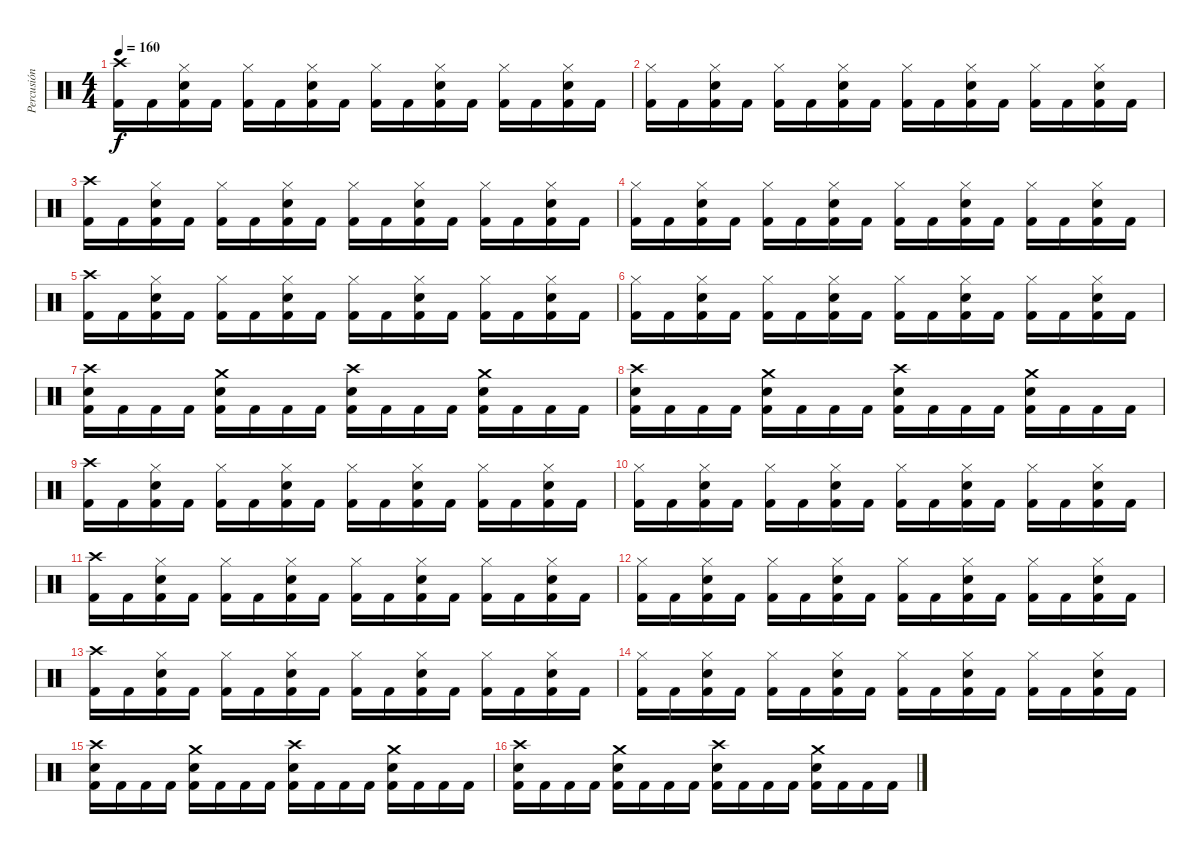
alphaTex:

\track ("Percusión" "Percusión") {instrument percussion}
\staff {score}
\articulation defaults
\ts (4 4)
\tempo 160
\clef neutral
\ks c
("Crash high (hit)" "Kick (hit) 2").16{dy f} "Kick (hit) 2".16 ("Hi-Hat (closed)" "Electric Snare (hit)" "Kick (hit) 2").16 "Kick (hit) 2".16 ("Hi-Hat (closed)" "Kick (hit) 2").16 "Kick (hit) 2".16 ("Hi-Hat (closed)" "Electric Snare (hit)" "Kick (hit) 2").16 "Kick (hit) 2".16 ("Hi-Hat (closed)" "Kick (hit) 2").16 "Kick (hit) 2".16 ("Hi-Hat (closed)" "Electric Snare (hit)" "Kick (hit) 2").16 "Kick (hit) 2".16 ("Hi-Hat (closed)" "Kick (hit) 2").16 "Kick (hit) 2".16 ("Hi-Hat (closed)" "Electric Snare (hit)" "Kick (hit) 2").16 "Kick (hit) 2".16 |
("Hi-Hat (closed)" "Kick (hit) 2").16 "Kick (hit) 2".16 ("Hi-Hat (closed)" "Electric Snare (hit)" "Kick (hit) 2").16 "Kick (hit) 2".16 ("Hi-Hat (closed)" "Kick (hit) 2").16 "Kick (hit) 2".16 ("Hi-Hat (closed)" "Electric Snare (hit)" "Kick (hit) 2").16 "Kick (hit) 2".16 ("Hi-Hat (closed)" "Kick (hit) 2").16 "Kick (hit) 2".16 ("Hi-Hat (closed)" "Electric Snare (hit)" "Kick (hit) 2").16 "Kick (hit) 2".16 ("Hi-Hat (closed)" "Kick (hit) 2").16 "Kick (hit) 2".16 ("Hi-Hat (closed)" "Electric Snare (hit)" "Kick (hit) 2").16 "Kick (hit) 2".16 |
("Crash high (hit)" "Kick (hit) 2").16 "Kick (hit) 2".16 ("Hi-Hat (closed)" "Electric Snare (hit)" "Kick (hit) 2").16 "Kick (hit) 2".16 ("Hi-Hat (closed)" "Kick (hit) 2").16 "Kick (hit) 2".16 ("Hi-Hat (closed)" "Electric Snare (hit)" "Kick (hit) 2").16 "Kick (hit) 2".16 ("Hi-Hat (closed)" "Kick (hit) 2").16 "Kick (hit) 2".16 ("Hi-Hat (closed)" "Electric Snare (hit)" "Kick (hit) 2").16 "Kick (hit) 2".16 ("Hi-Hat (closed)" "Kick (hit) 2").16 "Kick (hit) 2".16 ("Hi-Hat (closed)" "Electric Snare (hit)" "Kick (hit) 2").16 "Kick (hit) 2".16 |
("Hi-Hat (closed)" "Kick (hit) 2").16 "Kick (hit) 2".16 ("Hi-Hat (closed)" "Electric Snare (hit)" "Kick (hit) 2").16 "Kick (hit) 2".16 ("Hi-Hat (closed)" "Kick (hit) 2").16 "Kick (hit) 2".16 ("Hi-Hat (closed)" "Electric Snare (hit)" "Kick (hit) 2").16 "Kick (hit) 2".16 ("Hi-Hat (closed)" "Kick (hit) 2").16 "Kick (hit) 2".16 ("Hi-Hat (closed)" "Electric Snare (hit)" "Kick (hit) 2").16 "Kick (hit) 2".16 ("Hi-Hat (closed)" "Kick (hit) 2").16 "Kick (hit) 2".16 ("Hi-Hat (closed)" "Electric Snare (hit)" "Kick (hit) 2").16 "Kick (hit) 2".16 |
("Crash high (hit)" "Kick (hit) 2").16 "Kick (hit) 2".16 ("Hi-Hat (closed)" "Electric Snare (hit)" "Kick (hit) 2").16 "Kick (hit) 2".16 ("Hi-Hat (closed)" "Kick (hit) 2").16 "Kick (hit) 2".16 ("Hi-Hat (closed)" "Electric Snare (hit)" "Kick (hit) 2").16 "Kick (hit) 2".16 ("Hi-Hat (closed)" "Kick (hit) 2").16 "Kick (hit) 2".16 ("Hi-Hat (closed)" "Electric Snare (hit)" "Kick (hit) 2").16 "Kick (hit) 2".16 ("Hi-Hat (closed)" "Kick (hit) 2").16 "Kick (hit) 2".16 ("Hi-Hat (closed)" "Electric Snare (hit)" "Kick (hit) 2").16 "Kick (hit) 2".16 |
("Hi-Hat (closed)" "Kick (hit) 2").16 "Kick (hit) 2".16 ("Hi-Hat (closed)" "Electric Snare (hit)" "Kick (hit) 2").16 "Kick (hit) 2".16 ("Hi-Hat (closed)" "Kick (hit) 2").16 "Kick (hit) 2".16 ("Hi-Hat (closed)" "Electric Snare (hit)" "Kick (hit) 2").16 "Kick (hit) 2".16 ("Hi-Hat (closed)" "Kick (hit) 2").16 "Kick (hit) 2".16 ("Hi-Hat (closed)" "Electric Snare (hit)" "Kick (hit) 2").16 "Kick (hit) 2".16 ("Hi-Hat (closed)" "Kick (hit) 2").16 "Kick (hit) 2".16 ("Hi-Hat (closed)" "Electric Snare (hit)" "Kick (hit) 2").16 "Kick (hit) 2".16 |
("Crash high (hit)" "Electric Snare (hit)" "Kick (hit) 2").16 "Kick (hit) 2".16 "Kick (hit) 2".16 "Kick (hit) 2".16 ("Crash medium (hit)" "Electric Snare (hit)" "Kick (hit) 2").16 "Kick (hit) 2".16 "Kick (hit) 2".16 "Kick (hit) 2".16 ("Crash high (hit)" "Electric Snare (hit)" "Kick (hit) 2").16 "Kick (hit) 2".16 "Kick (hit) 2".16 "Kick (hit) 2".16 ("Crash medium (hit)" "Electric Snare (hit)" "Kick (hit) 2").16 "Kick (hit) 2".16 "Kick (hit) 2".16 "Kick (hit) 2".16 |
("Crash high (hit)" "Electric Snare (hit)" "Kick (hit) 2").16 "Kick (hit) 2".16 "Kick (hit) 2".16 "Kick (hit) 2".16 ("Crash medium (hit)" "Electric Snare (hit)" "Kick (hit) 2").16 "Kick (hit) 2".16 "Kick (hit) 2".16 "Kick (hit) 2".16 ("Crash high (hit)" "Electric Snare (hit)" "Kick (hit) 2").16 "Kick (hit) 2".16 "Kick (hit) 2".16 "Kick (hit) 2".16 ("Crash medium (hit)" "Electric Snare (hit)" "Kick (hit) 2").16 "Kick (hit) 2".16 "Kick (hit) 2".16 "Kick (hit) 2".16 |
("Crash high (hit)" "Kick (hit) 2").16 "Kick (hit) 2".16 ("Hi-Hat (closed)" "Electric Snare (hit)" "Kick (hit) 2").16 "Kick (hit) 2".16 ("Hi-Hat (closed)" "Kick (hit) 2").16 "Kick (hit) 2".16 ("Hi-Hat (closed)" "Electric Snare (hit)" "Kick (hit) 2").16 "Kick (hit) 2".16 ("Hi-Hat (closed)" "Kick (hit) 2").16 "Kick (hit) 2".16 ("Hi-Hat (closed)" "Electric Snare (hit)" "Kick (hit) 2").16 "Kick (hit) 2".16 ("Hi-Hat (closed)" "Kick (hit) 2").16 "Kick (hit) 2".16 ("Hi-Hat (closed)" "Electric Snare (hit)" "Kick (hit) 2").16 "Kick (hit) 2".16 |
("Hi-Hat (closed)" "Kick (hit) 2").16 "Kick (hit) 2".16 ("Hi-Hat (closed)" "Electric Snare (hit)" "Kick (hit) 2").16 "Kick (hit) 2".16 ("Hi-Hat (closed)" "Kick (hit) 2").16 "Kick (hit) 2".16 ("Hi-Hat (closed)" "Electric Snare (hit)" "Kick (hit) 2").16 "Kick (hit) 2".16 ("Hi-Hat (closed)" "Kick (hit) 2").16 "Kick (hit) 2".16 ("Hi-Hat (closed)" "Electric Snare (hit)" "Kick (hit) 2").16 "Kick (hit) 2".16 ("Hi-Hat (closed)" "Kick (hit) 2").16 "Kick (hit) 2".16 ("Hi-Hat (closed)" "Electric Snare (hit)" "Kick (hit) 2").16 "Kick (hit) 2".16 |
("Crash high (hit)" "Kick (hit) 2").16 "Kick (hit) 2".16 ("Hi-Hat (closed)" "Electric Snare (hit)" "Kick (hit) 2").16 "Kick (hit) 2".16 ("Hi-Hat (closed)" "Kick (hit) 2").16 "Kick (hit) 2".16 ("Hi-Hat (closed)" "Electric Snare (hit)" "Kick (hit) 2").16 "Kick (hit) 2".16 ("Hi-Hat (closed)" "Kick (hit) 2").16 "Kick (hit) 2".16 ("Hi-Hat (closed)" "Electric Snare (hit)" "Kick (hit) 2").16 "Kick (hit) 2".16 ("Hi-Hat (closed)" "Kick (hit) 2").16 "Kick (hit) 2".16 ("Hi-Hat (closed)" "Electric Snare (hit)" "Kick (hit) 2").16 "Kick (hit) 2".16 |
("Hi-Hat (closed)" "Kick (hit) 2").16 "Kick (hit) 2".16 ("Hi-Hat (closed)" "Electric Snare (hit)" "Kick (hit) 2").16 "Kick (hit) 2".16 ("Hi-Hat (closed)" "Kick (hit) 2").16 "Kick (hit) 2".16 ("Hi-Hat (closed)" "Electric Snare (hit)" "Kick (hit) 2").16 "Kick (hit) 2".16 ("Hi-Hat (closed)" "Kick (hit) 2").16 "Kick (hit) 2".16 ("Hi-Hat (closed)" "Electric Snare (hit)" "Kick (hit) 2").16 "Kick (hit) 2".16 ("Hi-Hat (closed)" "Kick (hit) 2").16 "Kick (hit) 2".16 ("Hi-Hat (closed)" "Electric Snare (hit)" "Kick (hit) 2").16 "Kick (hit) 2".16 |
("Crash high (hit)" "Kick (hit) 2").16 "Kick (hit) 2".16 ("Hi-Hat (closed)" "Electric Snare (hit)" "Kick (hit) 2").16 "Kick (hit) 2".16 ("Hi-Hat (closed)" "Kick (hit) 2").16 "Kick (hit) 2".16 ("Hi-Hat (closed)" "Electric Snare (hit)" "Kick (hit) 2").16 "Kick (hit) 2".16 ("Hi-Hat (closed)" "Kick (hit) 2").16 "Kick (hit) 2".16 ("Hi-Hat (closed)" "Electric Snare (hit)" "Kick (hit) 2").16 "Kick (hit) 2".16 ("Hi-Hat (closed)" "Kick (hit) 2").16 "Kick (hit) 2".16 ("Hi-Hat (closed)" "Electric Snare (hit)" "Kick (hit) 2").16 "Kick (hit) 2".16 |
("Hi-Hat (closed)" "Kick (hit) 2").16 "Kick (hit) 2".16 ("Hi-Hat (closed)" "Electric Snare (hit)" "Kick (hit) 2").16 "Kick (hit) 2".16 ("Hi-Hat (closed)" "Kick (hit) 2").16 "Kick (hit) 2".16 ("Hi-Hat (closed)" "Electric Snare (hit)" "Kick (hit) 2").16 "Kick (hit) 2".16 ("Hi-Hat (closed)" "Kick (hit) 2").16 "Kick (hit) 2".16 ("Hi-Hat (closed)" "Electric Snare (hit)" "Kick (hit) 2").16 "Kick (hit) 2".16 ("Hi-Hat (closed)" "Kick (hit) 2").16 "Kick (hit) 2".16 ("Hi-Hat (closed)" "Electric Snare (hit)" "Kick (hit) 2").16 "Kick (hit) 2".16 |
("Crash high (hit)" "Electric Snare (hit)" "Kick (hit) 2").16 "Kick (hit) 2".16 "Kick (hit) 2".16 "Kick (hit) 2".16 ("Crash medium (hit)" "Electric Snare (hit)" "Kick (hit) 2").16 "Kick (hit) 2".16 "Kick (hit) 2".16 "Kick (hit) 2".16 ("Crash high (hit)" "Electric Snare (hit)" "Kick (hit) 2").16 "Kick (hit) 2".16 "Kick (hit) 2".16 "Kick (hit) 2".16 ("Crash medium (hit)" "Electric Snare (hit)" "Kick (hit) 2").16 "Kick (hit) 2".16 "Kick (hit) 2".16 "Kick (hit) 2".16 |
("Crash high (hit)" "Electric Snare (hit)" "Kick (hit) 2").16 "Kick (hit) 2".16 "Kick (hit) 2".16 "Kick (hit) 2".16 ("Crash medium (hit)" "Electric Snare (hit)" "Kick (hit) 2").16 "Kick (hit) 2".16 "Kick (hit) 2".16 "Kick (hit) 2".16 ("Crash high (hit)" "Electric Snare (hit)" "Kick (hit) 2").16 "Kick (hit) 2".16 "Kick (hit) 2".16 "Kick (hit) 2".16 ("Crash medium (hit)" "Electric Snare (hit)" "Kick (hit) 2").16 "Kick (hit) 2".16 "Kick (hit) 2".16 "Kick (hit) 2".16
